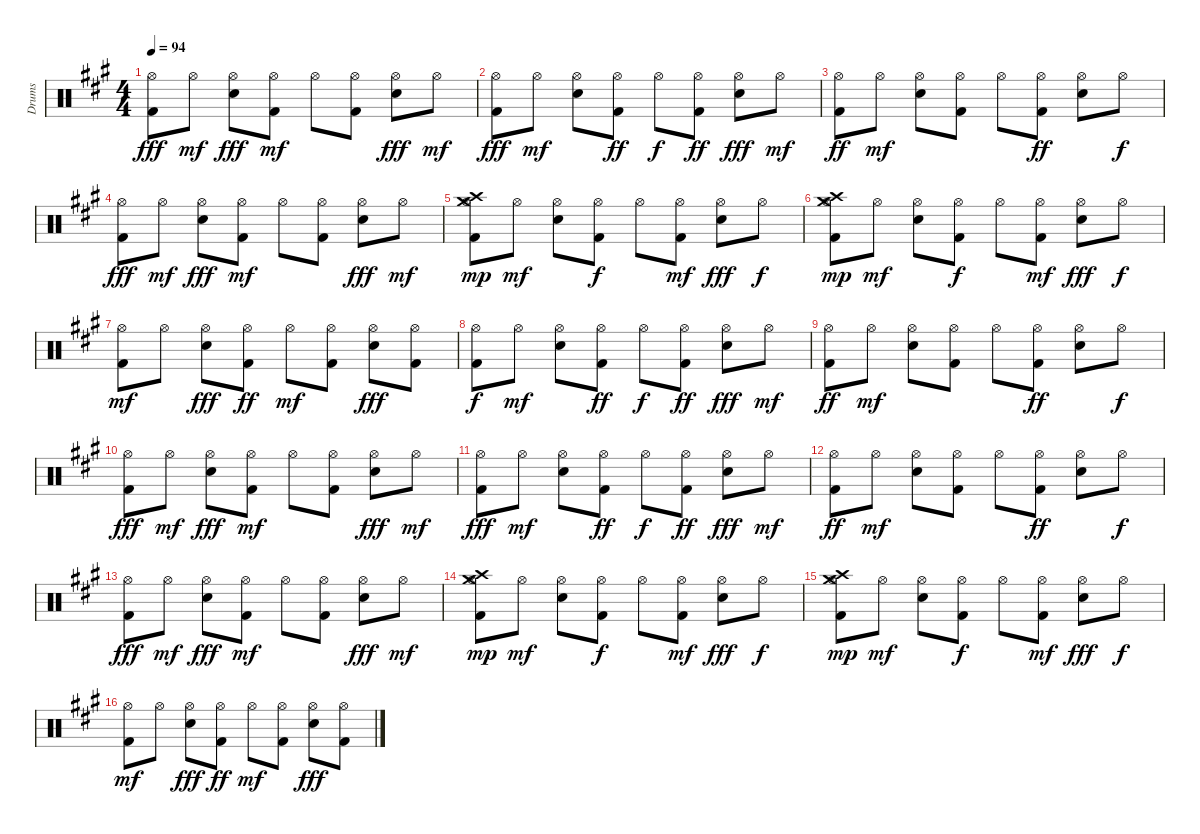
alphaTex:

\track ("Drums" "Drums") {instrument percussion}
\staff {score}
\articulation defaults
\ts (4 4)
\tempo 94
\clef neutral
\ks a
("Kick (hit) 2" "Hi-Hat (open)").8{dy fff} "Hi-Hat (open)".8{dy mf} ("Electric Snare (hit)" "Hi-Hat (open)").8{dy fff} ("Kick (hit) 2" "Hi-Hat (open)").8{dy mf} "Hi-Hat (open)".8 ("Kick (hit) 2" "Hi-Hat (open)").8 ("Electric Snare (hit)" "Hi-Hat (open)").8{dy fff} "Hi-Hat (open)".8{dy mf} |
("Kick (hit) 2" "Hi-Hat (open)").8{dy fff} "Hi-Hat (open)".8{dy mf} ("Electric Snare (hit)" "Hi-Hat (open)").8 ("Kick (hit) 2" "Hi-Hat (open)").8{dy ff} "Hi-Hat (open)".8{dy f} ("Kick (hit) 2" "Hi-Hat (open)").8{dy ff} ("Electric Snare (hit)" "Hi-Hat (open)").8{dy fff} "Hi-Hat (open)".8{dy mf} |
("Kick (hit) 2" "Hi-Hat (open)").8{dy ff} "Hi-Hat (open)".8{dy mf} ("Electric Snare (hit)" "Hi-Hat (open)").8 ("Kick (hit) 2" "Hi-Hat (open)").8 "Hi-Hat (open)".8 ("Kick (hit) 2" "Hi-Hat (open)").8{dy ff} ("Electric Snare (hit)" "Hi-Hat (open)").8 "Hi-Hat (open)".8{dy f} |
("Kick (hit) 2" "Hi-Hat (open)").8{dy fff} "Hi-Hat (open)".8{dy mf} ("Electric Snare (hit)" "Hi-Hat (open)").8{dy fff} ("Kick (hit) 2" "Hi-Hat (open)").8{dy mf} "Hi-Hat (open)".8 ("Kick (hit) 2" "Hi-Hat (open)").8 ("Electric Snare (hit)" "Hi-Hat (open)").8{dy fff} "Hi-Hat (open)".8{dy mf} |
("Kick (hit) 2" "Hi-Hat (open)" "Crash high (hit)" "Crash medium (hit)").8{dy mp} "Hi-Hat (open)".8{dy mf} ("Electric Snare (hit)" "Hi-Hat (open)").8 ("Kick (hit) 2" "Hi-Hat (open)").8{dy f} "Hi-Hat (open)".8 ("Kick (hit) 2" "Hi-Hat (open)").8{dy mf} ("Electric Snare (hit)" "Hi-Hat (open)").8{dy fff} "Hi-Hat (open)".8{dy f} |
("Kick (hit) 2" "Hi-Hat (open)" "Crash high (hit)" "Crash medium (hit)").8{dy mp} "Hi-Hat (open)".8{dy mf} ("Electric Snare (hit)" "Hi-Hat (open)").8 ("Kick (hit) 2" "Hi-Hat (open)").8{dy f} "Hi-Hat (open)".8 ("Kick (hit) 2" "Hi-Hat (open)").8{dy mf} ("Electric Snare (hit)" "Hi-Hat (open)").8{dy fff} "Hi-Hat (open)".8{dy f} |
("Kick (hit) 2" "Hi-Hat (open)").8{dy mf} "Hi-Hat (open)".8 ("Electric Snare (hit)" "Hi-Hat (open)").8{dy fff} ("Kick (hit) 2" "Hi-Hat (open)").8{dy ff} "Hi-Hat (open)".8{dy mf} ("Kick (hit) 2" "Hi-Hat (open)").8 ("Electric Snare (hit)" "Hi-Hat (open)").8{dy fff} ("Kick (hit) 2" "Hi-Hat (open)").8 |
("Hi-Hat (open)" "Kick (hit) 2").8{dy f} "Hi-Hat (open)".8{dy mf} ("Electric Snare (hit)" "Hi-Hat (open)").8 ("Kick (hit) 2" "Hi-Hat (open)").8{dy ff} "Hi-Hat (open)".8{dy f} ("Kick (hit) 2" "Hi-Hat (open)").8{dy ff} ("Electric Snare (hit)" "Hi-Hat (open)").8{dy fff} "Hi-Hat (open)".8{dy mf} |
("Kick (hit) 2" "Hi-Hat (open)").8{dy ff} "Hi-Hat (open)".8{dy mf} ("Electric Snare (hit)" "Hi-Hat (open)").8 ("Kick (hit) 2" "Hi-Hat (open)").8 "Hi-Hat (open)".8 ("Kick (hit) 2" "Hi-Hat (open)").8{dy ff} ("Electric Snare (hit)" "Hi-Hat (open)").8 "Hi-Hat (open)".8{dy f} |
("Kick (hit) 2" "Hi-Hat (open)").8{dy fff} "Hi-Hat (open)".8{dy mf} ("Electric Snare (hit)" "Hi-Hat (open)").8{dy fff} ("Kick (hit) 2" "Hi-Hat (open)").8{dy mf} "Hi-Hat (open)".8 ("Kick (hit) 2" "Hi-Hat (open)").8 ("Electric Snare (hit)" "Hi-Hat (open)").8{dy fff} "Hi-Hat (open)".8{dy mf} |
("Kick (hit) 2" "Hi-Hat (open)").8{dy fff} "Hi-Hat (open)".8{dy mf} ("Electric Snare (hit)" "Hi-Hat (open)").8 ("Kick (hit) 2" "Hi-Hat (open)").8{dy ff} "Hi-Hat (open)".8{dy f} ("Kick (hit) 2" "Hi-Hat (open)").8{dy ff} ("Electric Snare (hit)" "Hi-Hat (open)").8{dy fff} "Hi-Hat (open)".8{dy mf} |
("Kick (hit) 2" "Hi-Hat (open)").8{dy ff} "Hi-Hat (open)".8{dy mf} ("Electric Snare (hit)" "Hi-Hat (open)").8 ("Kick (hit) 2" "Hi-Hat (open)").8 "Hi-Hat (open)".8 ("Kick (hit) 2" "Hi-Hat (open)").8{dy ff} ("Electric Snare (hit)" "Hi-Hat (open)").8 "Hi-Hat (open)".8{dy f} |
("Kick (hit) 2" "Hi-Hat (open)").8{dy fff} "Hi-Hat (open)".8{dy mf} ("Electric Snare (hit)" "Hi-Hat (open)").8{dy fff} ("Kick (hit) 2" "Hi-Hat (open)").8{dy mf} "Hi-Hat (open)".8 ("Kick (hit) 2" "Hi-Hat (open)").8 ("Electric Snare (hit)" "Hi-Hat (open)").8{dy fff} "Hi-Hat (open)".8{dy mf} |
("Kick (hit) 2" "Hi-Hat (open)" "Crash high (hit)" "Crash medium (hit)").8{dy mp} "Hi-Hat (open)".8{dy mf} ("Electric Snare (hit)" "Hi-Hat (open)").8 ("Kick (hit) 2" "Hi-Hat (open)").8{dy f} "Hi-Hat (open)".8 ("Kick (hit) 2" "Hi-Hat (open)").8{dy mf} ("Electric Snare (hit)" "Hi-Hat (open)").8{dy fff} "Hi-Hat (open)".8{dy f} |
("Kick (hit) 2" "Hi-Hat (open)" "Crash high (hit)" "Crash medium (hit)").8{dy mp} "Hi-Hat (open)".8{dy mf} ("Electric Snare (hit)" "Hi-Hat (open)").8 ("Kick (hit) 2" "Hi-Hat (open)").8{dy f} "Hi-Hat (open)".8 ("Kick (hit) 2" "Hi-Hat (open)").8{dy mf} ("Electric Snare (hit)" "Hi-Hat (open)").8{dy fff} "Hi-Hat (open)".8{dy f} |
("Kick (hit) 2" "Hi-Hat (open)").8{dy mf} "Hi-Hat (open)".8 ("Electric Snare (hit)" "Hi-Hat (open)").8{dy fff} ("Kick (hit) 2" "Hi-Hat (open)").8{dy ff} "Hi-Hat (open)".8{dy mf} ("Kick (hit) 2" "Hi-Hat (open)").8 ("Electric Snare (hit)" "Hi-Hat (open)").8{dy fff} ("Kick (hit) 2" "Hi-Hat (open)").8
